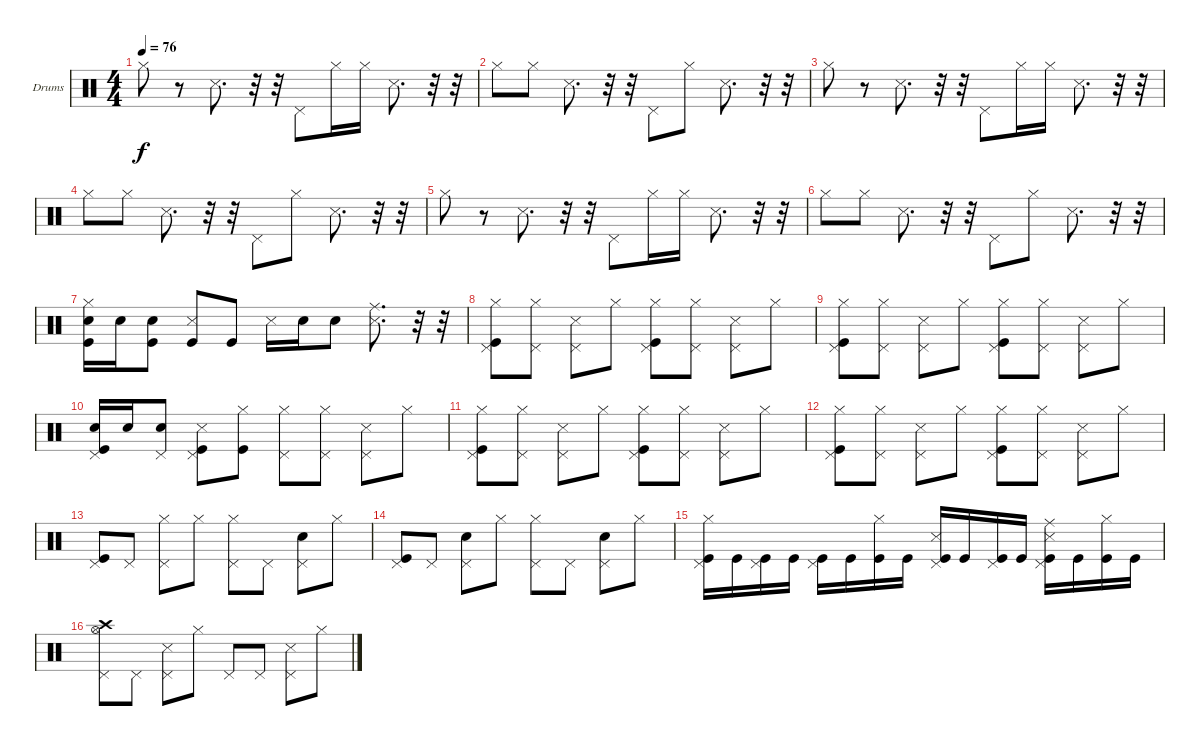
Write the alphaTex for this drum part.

\bracketExtendMode groupsimilarinstruments
\firstSystemTrackNameOrientation horizontal
\otherSystemsTrackNameOrientation horizontal
\track ("Drumkit" "Drums") {instrument percussion}
\staff {score}
\articulation defaults
\ts (4 4)
\tempo 76
\clef neutral
\ks c "Hi-Hat (closed)".8{dy f}
r.8 "Snare (side stick) 3".8{d} r.32 r.32 "Pedal Hi-Hat (hit)".8 "Hi-Hat (closed)".16 "Hi-Hat (closed)".16 "Snare (side stick) 3".8{d} r.32 r.32 |
"Hi-Hat (closed)".8 "Hi-Hat (closed)".8 "Snare (side stick) 3".8{d} r.32 r.32 "Pedal Hi-Hat (hit)".8 "Hi-Hat (closed)".8 "Snare (side stick) 3".8{d} r.32 r.32 |
"Hi-Hat (closed)".8 r.8 "Snare (side stick) 3".8{d} r.32 r.32 "Pedal Hi-Hat (hit)".8 "Hi-Hat (closed)".16 "Hi-Hat (closed)".16 "Snare (side stick) 3".8{d} r.32 r.32 |
"Hi-Hat (closed)".8 "Hi-Hat (closed)".8 "Snare (side stick) 3".8{d} r.32 r.32 "Pedal Hi-Hat (hit)".8 "Hi-Hat (closed)".8 "Snare (side stick) 3".8{d} r.32 r.32 |
"Hi-Hat (closed)".8 r.8 "Snare (side stick) 3".8{d} r.32 r.32 "Pedal Hi-Hat (hit)".8 "Hi-Hat (closed)".16 "Hi-Hat (closed)".16 "Snare (side stick) 3".8{d} r.32 r.32 |
"Hi-Hat (closed)".8 "Hi-Hat (closed)".8 "Snare (side stick) 3".8{d} r.32 r.32 "Pedal Hi-Hat (hit)".8 "Hi-Hat (closed)".8 "Snare (side stick) 3".8{d} r.32 r.32 |
("Kick (hit)" "Hi-Hat (closed)" "Snare (hit) 2").16 "Snare (hit) 2".16 ("Kick (hit)" "Snare (hit) 2").8 ("Kick (hit)" "Snare (side stick) 3").8 "Kick (hit)".8 "Snare (side stick) 3".16 "Snare (hit) 2".16 "Snare (hit) 2".8 ("Snare (side stick) 3" "Ride (middle)").8{d} r.32 r.32 |
("Kick (hit)" "Hi-Hat (closed)" "Pedal Hi-Hat (hit)").8 ("Hi-Hat (closed)" "Pedal Hi-Hat (hit)").8 ("Snare (side stick) 3" "Pedal Hi-Hat (hit)").8 "Hi-Hat (closed)".8 ("Kick (hit)" "Hi-Hat (closed)" "Pedal Hi-Hat (hit)").8 ("Hi-Hat (closed)" "Pedal Hi-Hat (hit)").8 ("Snare (side stick) 3" "Pedal Hi-Hat (hit)").8 "Hi-Hat (closed)".8 |
("Kick (hit)" "Hi-Hat (closed)" "Pedal Hi-Hat (hit)").8 ("Hi-Hat (closed)" "Pedal Hi-Hat (hit)").8 ("Snare (side stick) 3" "Pedal Hi-Hat (hit)").8 "Hi-Hat (closed)".8 ("Kick (hit)" "Hi-Hat (closed)" "Pedal Hi-Hat (hit)").8 ("Hi-Hat (closed)" "Pedal Hi-Hat (hit)").8 ("Snare (side stick) 3" "Pedal Hi-Hat (hit)").8 "Hi-Hat (closed)".8 |
("Kick (hit)" "Snare (hit) 2" "Pedal Hi-Hat (hit)").16 "Snare (hit) 2".16 ("Snare (hit) 2" "Pedal Hi-Hat (hit)").8 ("Snare (side stick) 3" "Kick (hit)" "Pedal Hi-Hat (hit)").8 ("Kick (hit)" "Hi-Hat (closed)").8 ("Hi-Hat (closed)" "Pedal Hi-Hat (hit)").8 ("Hi-Hat (closed)" "Pedal Hi-Hat (hit)").8 ("Snare (side stick) 3" "Pedal Hi-Hat (hit)").8 "Hi-Hat (closed)".8 |
("Kick (hit)" "Hi-Hat (closed)" "Pedal Hi-Hat (hit)").8 ("Hi-Hat (closed)" "Pedal Hi-Hat (hit)").8 ("Snare (side stick) 3" "Pedal Hi-Hat (hit)").8 "Hi-Hat (closed)".8 ("Kick (hit)" "Hi-Hat (closed)" "Pedal Hi-Hat (hit)").8 ("Hi-Hat (closed)" "Pedal Hi-Hat (hit)").8 ("Snare (side stick) 3" "Pedal Hi-Hat (hit)").8 "Hi-Hat (closed)".8 |
("Kick (hit)" "Hi-Hat (closed)" "Pedal Hi-Hat (hit)").8 ("Hi-Hat (closed)" "Pedal Hi-Hat (hit)").8 ("Snare (side stick) 3" "Pedal Hi-Hat (hit)").8 "Hi-Hat (closed)".8 ("Kick (hit)" "Hi-Hat (closed)" "Pedal Hi-Hat (hit)").8 ("Hi-Hat (closed)" "Pedal Hi-Hat (hit)").8 ("Snare (side stick) 3" "Pedal Hi-Hat (hit)").8 "Hi-Hat (closed)".8 |
("Kick (hit)" "Pedal Hi-Hat (hit)").8 "Pedal Hi-Hat (hit)".8 ("Hi-Hat (closed)" "Pedal Hi-Hat (hit)").8 "Hi-Hat (closed)".8 ("Hi-Hat (closed)" "Pedal Hi-Hat (hit)").8 "Pedal Hi-Hat (hit)".8 ("Snare (hit) 2" "Pedal Hi-Hat (hit)").8 "Hi-Hat (closed)".8 |
("Kick (hit)" "Pedal Hi-Hat (hit)").8 "Pedal Hi-Hat (hit)".8 ("Snare (hit) 2" "Pedal Hi-Hat (hit)").8 "Hi-Hat (closed)".8 ("Hi-Hat (closed)" "Pedal Hi-Hat (hit)").8 "Pedal Hi-Hat (hit)".8 ("Snare (hit) 2" "Pedal Hi-Hat (hit)").8 "Hi-Hat (closed)".8 |
("Kick (hit)" "Hi-Hat (closed)" "Pedal Hi-Hat (hit)").16 "Kick (hit)".16 ("Kick (hit)" "Pedal Hi-Hat (hit)").16 "Kick (hit)".16 ("Kick (hit)" "Pedal Hi-Hat (hit)").16 "Kick (hit)".16 ("Kick (hit)" "Hi-Hat (closed)").16 "Kick (hit)".16 ("Snare (side stick) 3" "Pedal Hi-Hat (hit)" "Kick (hit)").16 "Kick (hit)".16 ("Pedal Hi-Hat (hit)" "Kick (hit)").16 "Kick (hit)".16 ("Snare (side stick) 3" "Ride (middle)" "Pedal Hi-Hat (hit)" "Kick (hit)").16 "Kick (hit)".16 ("Hi-Hat (closed)" "Kick (hit)").16 "Kick (hit)".16 |
("Hi-Hat (open)" "Crash high (hit)" "Pedal Hi-Hat (hit)").8 "Pedal Hi-Hat (hit)".8 ("Snare (side stick) 3" "Pedal Hi-Hat (hit)").8 "Hi-Hat (closed)".8 "Pedal Hi-Hat (hit)".8 "Pedal Hi-Hat (hit)".8 ("Snare (side stick) 3" "Pedal Hi-Hat (hit)").8 "Hi-Hat (closed)".8
